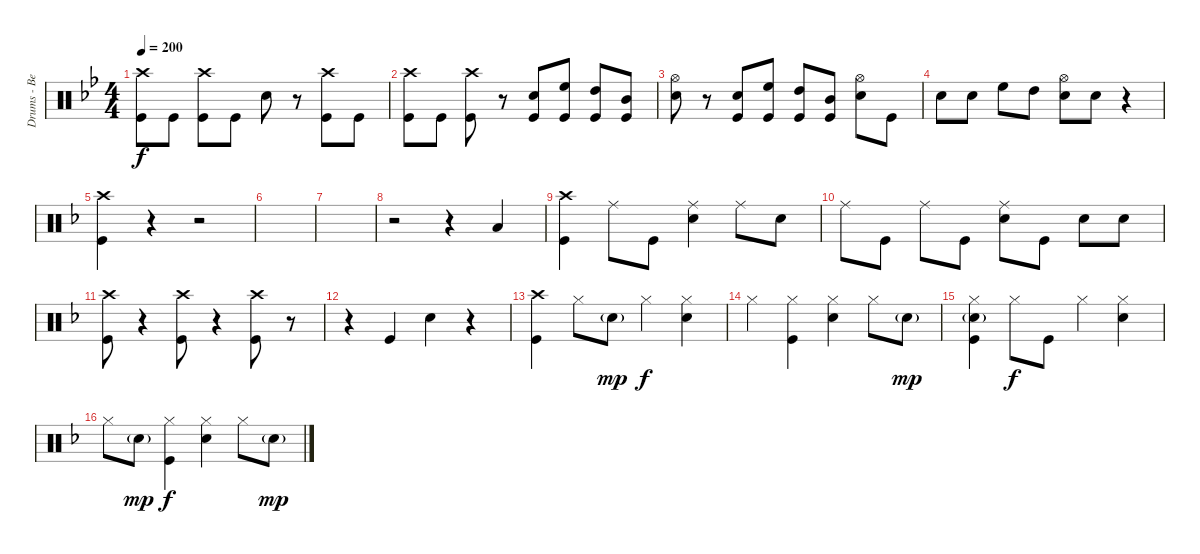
\track ("Drums - Ben Johnston" "Drums - Be") {instrument percussion}
\staff {score}
\articulation defaults
\ts (4 4)
\tempo 200
\clef neutral
\ks bb
("Crash high (hit)" "Kick (hit)").8{dy f} "Kick (hit)".8 ("Crash high (hit)" "Kick (hit)").8 "Kick (hit)".8 "Snare (hit) 2".8 r.8 ("Crash high (hit)" "Kick (hit)").8 "Kick (hit)".8 |
("Crash high (hit)" "Kick (hit)").8 "Kick (hit)".8 ("Crash high (hit)" "Kick (hit)").8 r.8 ("Snare (hit) 2" "Kick (hit)").8 ("High Floor Tom (hit)" "Kick (hit)").8 ("High Tom (hit)" "Kick (hit)").8 ("Mid Tom (hit)" "Kick (hit)").8 |
("Hi-Hat (open)" "Snare (hit) 2").8 r.8 ("Snare (hit) 2" "Kick (hit)").8 ("High Floor Tom (hit)" "Kick (hit)").8 ("High Tom (hit)" "Kick (hit)").8 ("Mid Tom (hit)" "Kick (hit)").8 ("Hi-Hat (open)" "Snare (hit) 2").8 "Kick (hit)".8 |
"Snare (hit) 2".8 "Snare (hit) 2".8 "High Floor Tom (hit)".8 "High Tom (hit)".8 ("Hi-Hat (open)" "Snare (hit) 2").8 "Snare (hit) 2".8 r.4 |
\ks f
("Crash high (hit)" "Kick (hit)").4 r.4 r.2 |
|
|
r.2 r.4 "Low Tom (hit)".4 |
("Crash high (hit)" "Kick (hit)").4 "Ride (middle)".8 "Kick (hit)".8 ("Ride (middle)" "Snare (hit) 2").4 "Ride (middle)".8 "Snare (hit) 2".8 |
"Ride (middle)".8 "Kick (hit)".8 "Ride (middle)".8 "Kick (hit)".8 ("Ride (middle)" "Snare (hit) 2").8 "Kick (hit)".8 "Snare (hit) 2".8 "Snare (hit) 2".8 |
("Crash high (hit)" "Kick (hit)").8 r.4 ("Crash high (hit)" "Kick (hit)").8 r.4 ("Crash high (hit)" "Kick (hit)").8 r.8 |
r.4 "Kick (hit)".4 "Snare (hit) 2".4 r.4 |
("Crash high (hit)" "Kick (hit)").4 "Hi-Hat (closed)".8 "Snare (hit) 2"{g}.8{dy mp} "Hi-Hat (closed)".4{dy f} ("Hi-Hat (closed)" "Snare (hit) 2").4 |
"Hi-Hat (closed)".4 ("Hi-Hat (closed)" "Kick (hit)").4 ("Hi-Hat (closed)" "Snare (hit) 2").4 "Hi-Hat (closed)".8 "Snare (hit) 2"{g}.8{dy mp} |
("Hi-Hat (closed)" "Snare (hit) 2"{g} "Kick (hit)").4 "Hi-Hat (closed)".8{dy f} "Kick (hit)".8 "Hi-Hat (closed)".4 ("Hi-Hat (closed)" "Snare (hit) 2").4 |
"Hi-Hat (closed)".8 "Snare (hit) 2"{g}.8{dy mp} ("Hi-Hat (closed)" "Kick (hit)").4{dy f} ("Hi-Hat (closed)" "Snare (hit) 2").4 "Hi-Hat (closed)".8 "Snare (hit) 2"{g}.8{dy mp}
